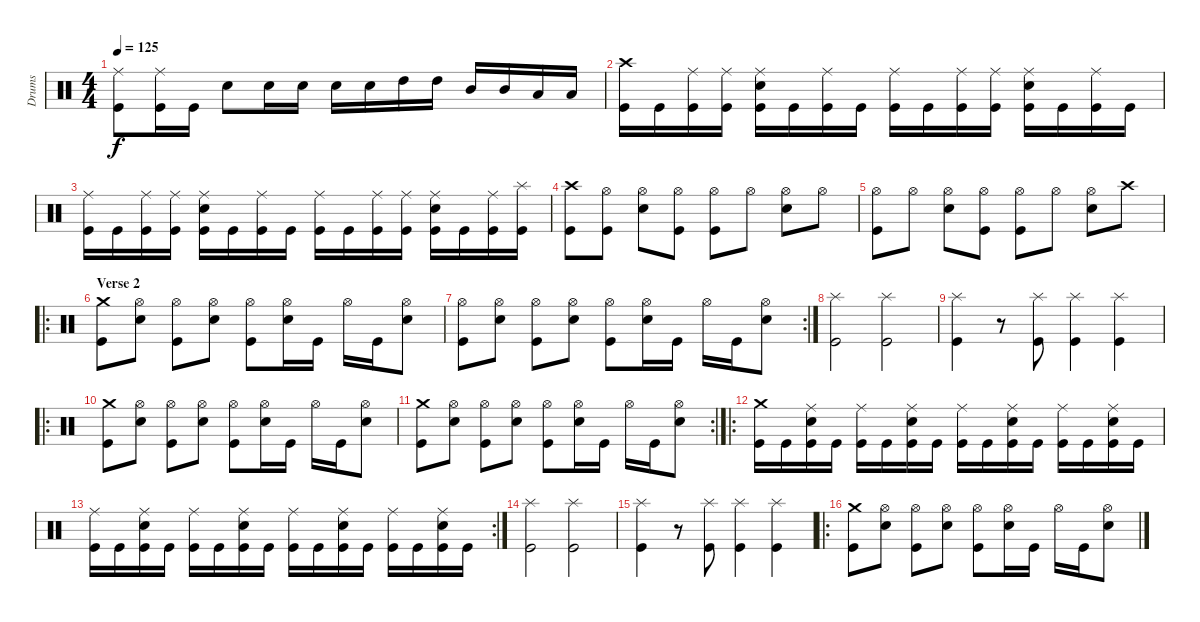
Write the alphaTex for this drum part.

\track ("Drums" "Drums") {instrument percussion}
\staff {score}
\articulation defaults
\ts (4 4)
\tempo 125
\clef neutral
\ks c
("Ride (middle)" "Kick (hit)").8{dy f} ("Ride (middle)" "Kick (hit)").16 "Kick (hit)".16 "Electric Snare (hit)".8 "Electric Snare (hit)".16 "Electric Snare (hit)".16 "Electric Snare (hit)".16 "Electric Snare (hit)".16 "High Tom (hit)".16 "High Tom (hit)".16 "Mid Tom (hit)".16 "Mid Tom (hit)".16 "Low Tom (hit)".16 "Low Tom (hit)".16 |
("Crash high (hit)" "Kick (hit)").16 "Kick (hit)".16 ("Ride (middle)" "Kick (hit)").16 ("Ride (middle)" "Kick (hit)").16 ("Ride (middle)" "Electric Snare (hit)" "Kick (hit)").16 "Kick (hit)".16 ("Ride (middle)" "Kick (hit)").16 "Kick (hit)".16 ("Ride (middle)" "Kick (hit)").16 "Kick (hit)".16 ("Ride (middle)" "Kick (hit)").16 ("Ride (middle)" "Kick (hit)").16 ("Ride (middle)" "Electric Snare (hit)" "Kick (hit)").16 "Kick (hit)".16 ("Ride (middle)" "Kick (hit)").16 "Kick (hit)".16 |
("Ride (middle)" "Kick (hit)").16 "Kick (hit)".16 ("Ride (middle)" "Kick (hit)").16 ("Ride (middle)" "Kick (hit)").16 ("Ride (middle)" "Electric Snare (hit)" "Kick (hit)").16 "Kick (hit)".16 ("Ride (middle)" "Kick (hit)").16 "Kick (hit)".16 ("Ride (middle)" "Kick (hit)").16 "Kick (hit)".16 ("Ride (middle)" "Kick (hit)").16 ("Ride (middle)" "Kick (hit)").16 ("Ride (middle)" "Electric Snare (hit)" "Kick (hit)").16 "Kick (hit)".16 ("Ride (middle)" "Kick (hit)").16 ("Splash (hit)" "Kick (hit)").16 |
("Crash high (hit)" "Kick (hit)").8 ("Hi-Hat (open)" "Kick (hit)").8 ("Hi-Hat (open)" "Electric Snare (hit)").8 ("Hi-Hat (open)" "Kick (hit)").8 ("Hi-Hat (open)" "Kick (hit)").8 "Hi-Hat (open)".8 ("Hi-Hat (open)" "Electric Snare (hit)").8 "Hi-Hat (open)".8 |
("Hi-Hat (open)" "Kick (hit)").8 "Hi-Hat (open)".8 ("Hi-Hat (open)" "Electric Snare (hit)").8 ("Hi-Hat (open)" "Kick (hit)").8 ("Hi-Hat (open)" "Kick (hit)").8 "Hi-Hat (open)".8 ("Hi-Hat (open)" "Electric Snare (hit)").8 "Crash high (hit)".8 |
\ro
\section ("" "Verse 2")
("Crash medium (hit)" "Kick (hit)").8 ("Hi-Hat (open)" "Electric Snare (hit)").8 ("Hi-Hat (open)" "Kick (hit)").8 ("Hi-Hat (open)" "Electric Snare (hit)").8 ("Hi-Hat (open)" "Kick (hit)").8 ("Hi-Hat (open)" "Electric Snare (hit)").16 "Kick (hit)".16 "Hi-Hat (open)".16 "Kick (hit)".16 ("Hi-Hat (open)" "Electric Snare (hit)").8 |
\rc 2
("Hi-Hat (open)" "Kick (hit)").8 ("Hi-Hat (open)" "Electric Snare (hit)").8 ("Hi-Hat (open)" "Kick (hit)").8 ("Hi-Hat (open)" "Electric Snare (hit)").8 ("Hi-Hat (open)" "Kick (hit)").8 ("Hi-Hat (open)" "Electric Snare (hit)").16 "Kick (hit)".16 "Hi-Hat (open)".16 "Kick (hit)".16 ("Hi-Hat (open)" "Electric Snare (hit)").8 |
("Splash (hit)" "Kick (hit)").2 ("Splash (hit)" "Kick (hit)").2 |
("Splash (hit)" "Kick (hit)").4 r.8 ("Splash (hit)" "Kick (hit)").8 ("Splash (hit)" "Kick (hit)").4 ("Splash (hit)" "Kick (hit)").4 |
\ro
("Crash medium (hit)" "Kick (hit)").8 ("Hi-Hat (open)" "Electric Snare (hit)").8 ("Hi-Hat (open)" "Kick (hit)").8 ("Hi-Hat (open)" "Electric Snare (hit)").8 ("Hi-Hat (open)" "Kick (hit)").8 ("Hi-Hat (open)" "Electric Snare (hit)").16 "Kick (hit)".16 "Hi-Hat (open)".16 "Kick (hit)".16 ("Hi-Hat (open)" "Electric Snare (hit)").8 |
\rc 2
("Crash medium (hit)" "Kick (hit)").8 ("Hi-Hat (open)" "Electric Snare (hit)").8 ("Hi-Hat (open)" "Kick (hit)").8 ("Hi-Hat (open)" "Electric Snare (hit)").8 ("Hi-Hat (open)" "Kick (hit)").8 ("Hi-Hat (open)" "Electric Snare (hit)").16 "Kick (hit)".16 "Hi-Hat (open)".16 "Kick (hit)".16 ("Hi-Hat (open)" "Electric Snare (hit)").8 |
\ro
("Crash medium (hit)" "Kick (hit)").16 "Kick (hit)".16 ("Ride (middle)" "Electric Snare (hit)" "Kick (hit)").16 "Kick (hit)".16 ("Ride (middle)" "Kick (hit)").16 "Kick (hit)".16 ("Ride (middle)" "Electric Snare (hit)" "Kick (hit)").16 "Kick (hit)".16 ("Ride (middle)" "Kick (hit)").16 "Kick (hit)".16 ("Ride (middle)" "Electric Snare (hit)" "Kick (hit)").16 "Kick (hit)".16 ("Ride (middle)" "Kick (hit)").16 "Kick (hit)".16 ("Ride (middle)" "Electric Snare (hit)" "Kick (hit)").16 "Kick (hit)".16 |
\rc 2
("Ride (middle)" "Kick (hit)").16 "Kick (hit)".16 ("Ride (middle)" "Electric Snare (hit)" "Kick (hit)").16 "Kick (hit)".16 ("Ride (middle)" "Kick (hit)").16 "Kick (hit)".16 ("Ride (middle)" "Electric Snare (hit)" "Kick (hit)").16 "Kick (hit)".16 ("Ride (middle)" "Kick (hit)").16 "Kick (hit)".16 ("Ride (middle)" "Electric Snare (hit)" "Kick (hit)").16 "Kick (hit)".16 ("Ride (middle)" "Kick (hit)").16 "Kick (hit)".16 ("Ride (middle)" "Electric Snare (hit)" "Kick (hit)").16 "Kick (hit)".16 |
("Splash (hit)" "Kick (hit)").2 ("Splash (hit)" "Kick (hit)").2 |
("Splash (hit)" "Kick (hit)").4 r.8 ("Splash (hit)" "Kick (hit)").8 ("Splash (hit)" "Kick (hit)").4 ("Splash (hit)" "Kick (hit)").4 |
\ro
("Crash medium (hit)" "Kick (hit)").8 ("Hi-Hat (open)" "Electric Snare (hit)").8 ("Hi-Hat (open)" "Kick (hit)").8 ("Hi-Hat (open)" "Electric Snare (hit)").8 ("Hi-Hat (open)" "Kick (hit)").8 ("Hi-Hat (open)" "Electric Snare (hit)").16 "Kick (hit)".16 "Hi-Hat (open)".16 "Kick (hit)".16 ("Hi-Hat (open)" "Electric Snare (hit)").8
